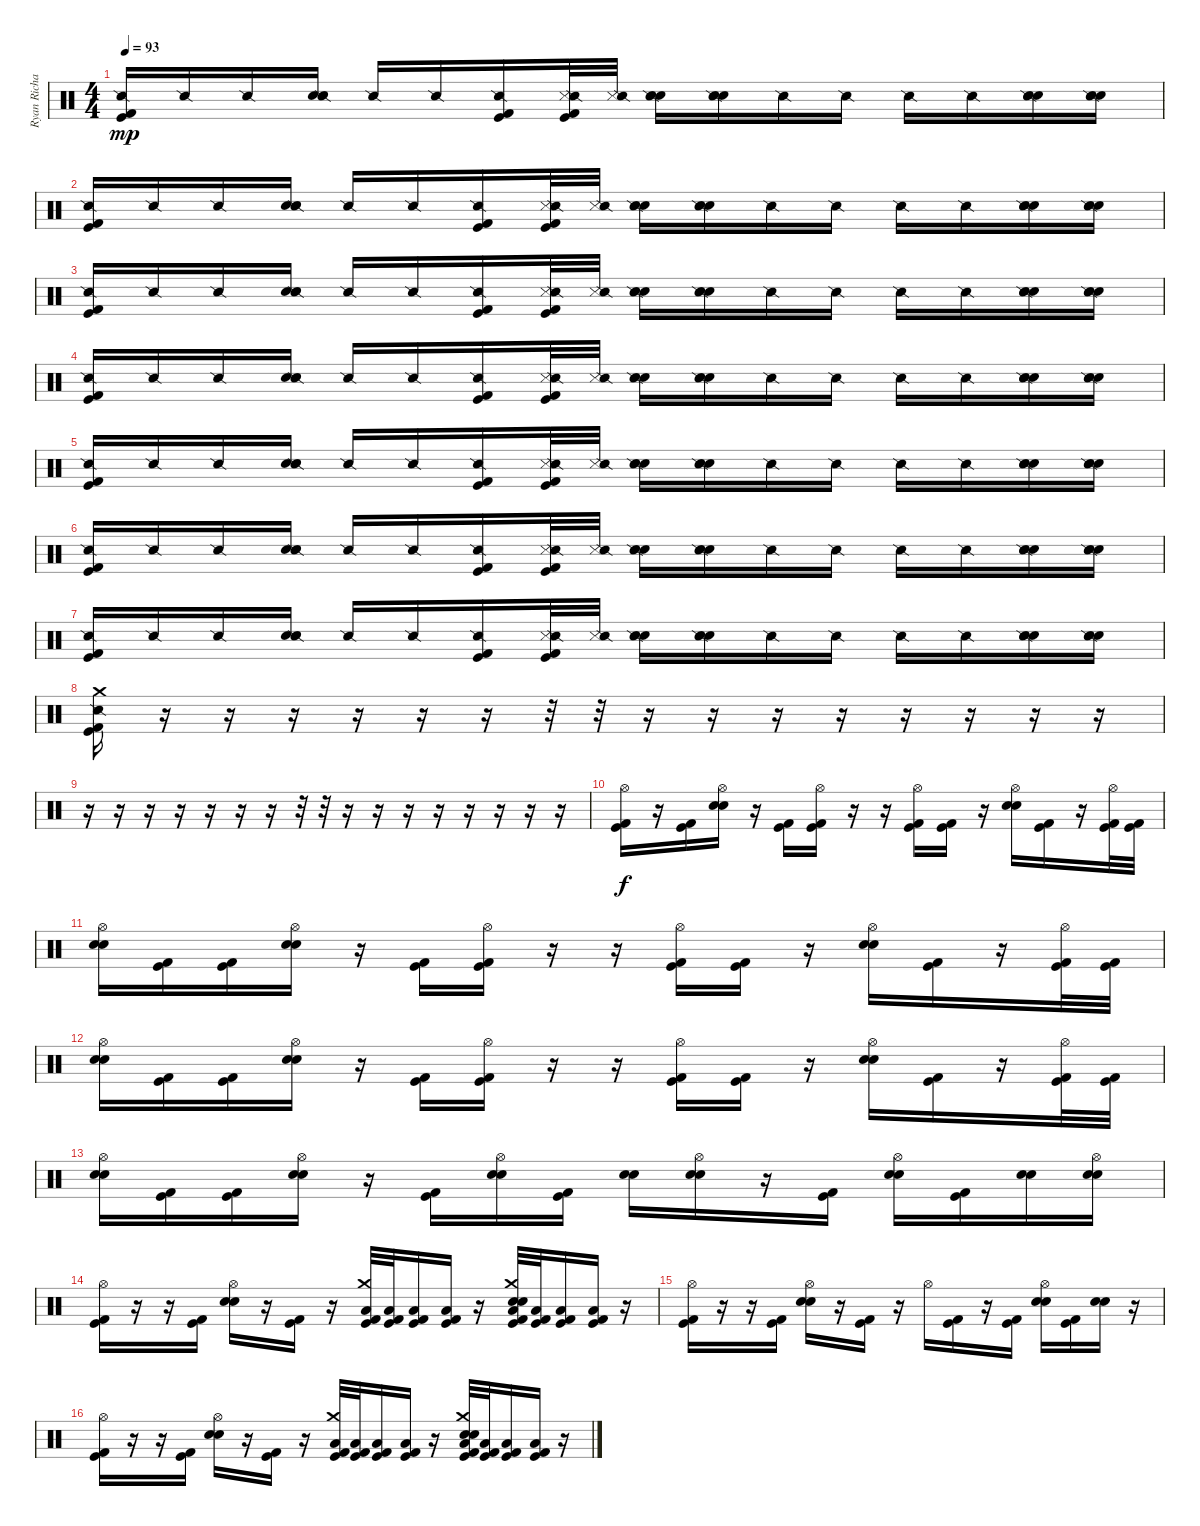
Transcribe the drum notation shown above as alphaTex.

\track ("Ryan Richards" "Ryan Richa") {instrument percussion}
\staff {score}
\articulation defaults
\ts (4 4)
\tempo 93
\clef neutral
\ks c
("Kick (hit)" "Snare (side stick) 2" "Kick (hit) 2").16{dy mp} "Snare (side stick) 2".16 "Snare (side stick) 2".16 ("Snare (hit) 2" "Snare (side stick) 2" "Electric Snare (hit)").16 "Snare (side stick) 2".16 "Snare (side stick) 2".16 ("Kick (hit)" "Snare (side stick) 2" "Kick (hit) 2").16 ("Kick (hit)" "Snare (side stick) 3" "Snare (side stick) 2" "Kick (hit) 2").32 ("Snare (side stick) 3" "Snare (side stick) 2").32 ("Snare (hit) 2" "Snare (side stick) 2" "Electric Snare (hit)").16 ("Snare (hit) 2" "Snare (side stick) 2" "Electric Snare (hit)").16 "Snare (side stick) 2".16 "Snare (side stick) 2".16 "Snare (side stick) 2".16 "Snare (side stick) 2".16 ("Snare (hit) 2" "Snare (side stick) 2" "Electric Snare (hit)").16 ("Snare (hit) 2" "Snare (side stick) 2" "Electric Snare (hit)").16 |
("Kick (hit)" "Snare (side stick) 2" "Kick (hit) 2").16 "Snare (side stick) 2".16 "Snare (side stick) 2".16 ("Snare (hit) 2" "Snare (side stick) 2" "Electric Snare (hit)").16 "Snare (side stick) 2".16 "Snare (side stick) 2".16 ("Kick (hit)" "Snare (side stick) 2" "Kick (hit) 2").16 ("Kick (hit)" "Snare (side stick) 3" "Snare (side stick) 2" "Kick (hit) 2").32 ("Snare (side stick) 3" "Snare (side stick) 2").32 ("Snare (hit) 2" "Snare (side stick) 2" "Electric Snare (hit)").16 ("Snare (hit) 2" "Snare (side stick) 2" "Electric Snare (hit)").16 "Snare (side stick) 2".16 "Snare (side stick) 2".16 "Snare (side stick) 2".16 "Snare (side stick) 2".16 ("Snare (hit) 2" "Snare (side stick) 2" "Electric Snare (hit)").16 ("Snare (hit) 2" "Snare (side stick) 2" "Electric Snare (hit)").16 |
("Kick (hit)" "Snare (side stick) 2" "Kick (hit) 2").16 "Snare (side stick) 2".16 "Snare (side stick) 2".16 ("Snare (hit) 2" "Snare (side stick) 2" "Electric Snare (hit)").16 "Snare (side stick) 2".16 "Snare (side stick) 2".16 ("Kick (hit)" "Snare (side stick) 2" "Kick (hit) 2").16 ("Kick (hit)" "Snare (side stick) 3" "Snare (side stick) 2" "Kick (hit) 2").32 ("Snare (side stick) 3" "Snare (side stick) 2").32 ("Snare (hit) 2" "Snare (side stick) 2" "Electric Snare (hit)").16 ("Snare (hit) 2" "Snare (side stick) 2" "Electric Snare (hit)").16 "Snare (side stick) 2".16 "Snare (side stick) 2".16 "Snare (side stick) 2".16 "Snare (side stick) 2".16 ("Snare (hit) 2" "Snare (side stick) 2" "Electric Snare (hit)").16 ("Snare (hit) 2" "Snare (side stick) 2" "Electric Snare (hit)").16 |
("Kick (hit)" "Snare (side stick) 2" "Kick (hit) 2").16 "Snare (side stick) 2".16 "Snare (side stick) 2".16 ("Snare (hit) 2" "Snare (side stick) 2" "Electric Snare (hit)").16 "Snare (side stick) 2".16 "Snare (side stick) 2".16 ("Kick (hit)" "Snare (side stick) 2" "Kick (hit) 2").16 ("Kick (hit)" "Snare (side stick) 3" "Snare (side stick) 2" "Kick (hit) 2").32 ("Snare (side stick) 3" "Snare (side stick) 2").32 ("Snare (hit) 2" "Snare (side stick) 2" "Electric Snare (hit)").16 ("Snare (hit) 2" "Snare (side stick) 2" "Electric Snare (hit)").16 "Snare (side stick) 2".16 "Snare (side stick) 2".16 "Snare (side stick) 2".16 "Snare (side stick) 2".16 ("Snare (hit) 2" "Snare (side stick) 2" "Electric Snare (hit)").16 ("Snare (hit) 2" "Snare (side stick) 2" "Electric Snare (hit)").16 |
("Kick (hit)" "Snare (side stick) 2" "Kick (hit) 2").16 "Snare (side stick) 2".16 "Snare (side stick) 2".16 ("Snare (hit) 2" "Snare (side stick) 2" "Electric Snare (hit)").16 "Snare (side stick) 2".16 "Snare (side stick) 2".16 ("Kick (hit)" "Snare (side stick) 2" "Kick (hit) 2").16 ("Kick (hit)" "Snare (side stick) 3" "Snare (side stick) 2" "Kick (hit) 2").32 ("Snare (side stick) 3" "Snare (side stick) 2").32 ("Snare (hit) 2" "Snare (side stick) 2" "Electric Snare (hit)").16 ("Snare (hit) 2" "Snare (side stick) 2" "Electric Snare (hit)").16 "Snare (side stick) 2".16 "Snare (side stick) 2".16 "Snare (side stick) 2".16 "Snare (side stick) 2".16 ("Snare (hit) 2" "Snare (side stick) 2" "Electric Snare (hit)").16 ("Snare (hit) 2" "Snare (side stick) 2" "Electric Snare (hit)").16 |
("Kick (hit)" "Snare (side stick) 2" "Kick (hit) 2").16 "Snare (side stick) 2".16 "Snare (side stick) 2".16 ("Snare (hit) 2" "Snare (side stick) 2" "Electric Snare (hit)").16 "Snare (side stick) 2".16 "Snare (side stick) 2".16 ("Kick (hit)" "Snare (side stick) 2" "Kick (hit) 2").16 ("Kick (hit)" "Snare (side stick) 3" "Snare (side stick) 2" "Kick (hit) 2").32 ("Snare (side stick) 3" "Snare (side stick) 2").32 ("Snare (hit) 2" "Snare (side stick) 2" "Electric Snare (hit)").16 ("Snare (hit) 2" "Snare (side stick) 2" "Electric Snare (hit)").16 "Snare (side stick) 2".16 "Snare (side stick) 2".16 "Snare (side stick) 2".16 "Snare (side stick) 2".16 ("Snare (hit) 2" "Snare (side stick) 2" "Electric Snare (hit)").16 ("Snare (hit) 2" "Snare (side stick) 2" "Electric Snare (hit)").16 |
("Kick (hit)" "Snare (side stick) 2" "Kick (hit) 2").16 "Snare (side stick) 2".16 "Snare (side stick) 2".16 ("Snare (hit) 2" "Snare (side stick) 2" "Electric Snare (hit)").16 "Snare (side stick) 2".16 "Snare (side stick) 2".16 ("Kick (hit)" "Snare (side stick) 2" "Kick (hit) 2").16 ("Kick (hit)" "Snare (side stick) 3" "Snare (side stick) 2" "Kick (hit) 2").32 ("Snare (side stick) 3" "Snare (side stick) 2").32 ("Snare (hit) 2" "Snare (side stick) 2" "Electric Snare (hit)").16 ("Snare (hit) 2" "Snare (side stick) 2" "Electric Snare (hit)").16 "Snare (side stick) 2".16 "Snare (side stick) 2".16 "Snare (side stick) 2".16 "Snare (side stick) 2".16 ("Snare (hit) 2" "Snare (side stick) 2" "Electric Snare (hit)").16 ("Snare (hit) 2" "Snare (side stick) 2" "Electric Snare (hit)").16 |
("Kick (hit)" "Crash medium (hit)" "Snare (side stick) 2" "Kick (hit) 2").16 r.16 r.16 r.16 r.16 r.16 r.16 r.32 r.32 r.16 r.16 r.16 r.16 r.16 r.16 r.16 r.16 |
r.16 r.16 r.16 r.16 r.16 r.16 r.16 r.32 r.32 r.16 r.16 r.16 r.16 r.16 r.16 r.16 r.16 |
("Kick (hit)" "Hi-Hat (open)" "Kick (hit) 2").16{dy f} r.16 ("Kick (hit)" "Kick (hit) 2").16 ("Snare (hit) 2" "Hi-Hat (open)" "Electric Snare (hit)").16 r.16 ("Kick (hit)" "Kick (hit) 2").16 ("Kick (hit)" "Hi-Hat (open)" "Kick (hit) 2").16 r.16 r.16 ("Kick (hit)" "Hi-Hat (open)" "Kick (hit) 2").16 ("Kick (hit)" "Kick (hit) 2").16 r.16 ("Snare (hit) 2" "Hi-Hat (open)" "Electric Snare (hit)").16 ("Kick (hit)" "Kick (hit) 2").16 r.16 ("Kick (hit)" "Hi-Hat (open)" "Kick (hit) 2").32 ("Kick (hit)" "Kick (hit) 2").32 |
("Snare (hit) 2" "Hi-Hat (open)" "Electric Snare (hit)").16 ("Kick (hit)" "Kick (hit) 2").16 ("Kick (hit)" "Kick (hit) 2").16 ("Snare (hit) 2" "Hi-Hat (open)" "Electric Snare (hit)").16 r.16 ("Kick (hit)" "Kick (hit) 2").16 ("Kick (hit)" "Hi-Hat (open)" "Kick (hit) 2").16 r.16 r.16 ("Kick (hit)" "Hi-Hat (open)" "Kick (hit) 2").16 ("Kick (hit)" "Kick (hit) 2").16 r.16 ("Snare (hit) 2" "Hi-Hat (open)" "Electric Snare (hit)").16 ("Kick (hit)" "Kick (hit) 2").16 r.16 ("Kick (hit)" "Hi-Hat (open)" "Kick (hit) 2").32 ("Kick (hit)" "Kick (hit) 2").32 |
("Snare (hit) 2" "Hi-Hat (open)" "Electric Snare (hit)").16 ("Kick (hit)" "Kick (hit) 2").16 ("Kick (hit)" "Kick (hit) 2").16 ("Snare (hit) 2" "Hi-Hat (open)" "Electric Snare (hit)").16 r.16 ("Kick (hit)" "Kick (hit) 2").16 ("Kick (hit)" "Hi-Hat (open)" "Kick (hit) 2").16 r.16 r.16 ("Kick (hit)" "Hi-Hat (open)" "Kick (hit) 2").16 ("Kick (hit)" "Kick (hit) 2").16 r.16 ("Snare (hit) 2" "Hi-Hat (open)" "Electric Snare (hit)").16 ("Kick (hit)" "Kick (hit) 2").16 r.16 ("Kick (hit)" "Hi-Hat (open)" "Kick (hit) 2").32 ("Kick (hit)" "Kick (hit) 2").32 |
("Snare (hit) 2" "Hi-Hat (open)" "Electric Snare (hit)").16 ("Kick (hit)" "Kick (hit) 2").16 ("Kick (hit)" "Kick (hit) 2").16 ("Snare (hit) 2" "Hi-Hat (open)" "Electric Snare (hit)").16 r.16 ("Kick (hit)" "Kick (hit) 2").16 ("Snare (hit) 2" "Hi-Hat (open)" "Electric Snare (hit)").16 ("Kick (hit)" "Kick (hit) 2").16 ("Snare (hit) 2" "Electric Snare (hit)").16 ("Snare (hit) 2" "Hi-Hat (open)" "Electric Snare (hit)").16 r.16 ("Kick (hit)" "Kick (hit) 2").16 ("Snare (hit) 2" "Hi-Hat (open)" "Electric Snare (hit)").16 ("Kick (hit)" "Kick (hit) 2").16 ("Snare (hit) 2" "Electric Snare (hit)").16 ("Snare (hit) 2" "Hi-Hat (open)" "Electric Snare (hit)").16 |
("Kick (hit)" "Hi-Hat (open)" "Kick (hit) 2").16 r.16 r.16 ("Kick (hit)" "Kick (hit) 2").16 ("Snare (hit) 2" "Hi-Hat (open)" "Electric Snare (hit)").16 r.16 ("Kick (hit)" "Kick (hit) 2").16 r.16 ("Kick (hit)" "Crash medium (hit)" "Low Floor Tom (hit)" "Kick (hit) 2").32 ("Kick (hit)" "Low Floor Tom (hit)" "Kick (hit) 2").32 ("Kick (hit)" "Low Floor Tom (hit)" "Kick (hit) 2").16 ("Kick (hit)" "Low Floor Tom (hit)" "Kick (hit) 2").16 r.16 ("Kick (hit)" "Snare (hit) 2" "Crash medium (hit)" "Low Floor Tom (hit)" "Electric Snare (hit)" "Kick (hit) 2").32 ("Kick (hit)" "Low Floor Tom (hit)" "Kick (hit) 2").32 ("Kick (hit)" "Low Floor Tom (hit)" "Kick (hit) 2").16 ("Kick (hit)" "Low Floor Tom (hit)" "Kick (hit) 2").16 r.16 |
("Kick (hit)" "Hi-Hat (open)" "Kick (hit) 2").16 r.16 r.16 ("Kick (hit)" "Kick (hit) 2").16 ("Snare (hit) 2" "Hi-Hat (open)" "Electric Snare (hit)").16 r.16 ("Kick (hit)" "Kick (hit) 2").16 r.16 "Hi-Hat (open)".16 ("Kick (hit)" "Kick (hit) 2").16 r.16 ("Kick (hit)" "Kick (hit) 2").16 ("Snare (hit) 2" "Hi-Hat (open)" "Electric Snare (hit)").16 ("Kick (hit)" "Kick (hit) 2").16 ("Snare (hit) 2" "Electric Snare (hit)").16 r.16 |
("Kick (hit)" "Hi-Hat (open)" "Kick (hit) 2").16 r.16 r.16 ("Kick (hit)" "Kick (hit) 2").16 ("Snare (hit) 2" "Hi-Hat (open)" "Electric Snare (hit)").16 r.16 ("Kick (hit)" "Kick (hit) 2").16 r.16 ("Kick (hit)" "Crash medium (hit)" "Low Floor Tom (hit)" "Kick (hit) 2").32 ("Kick (hit)" "Low Floor Tom (hit)" "Kick (hit) 2").32 ("Kick (hit)" "Low Floor Tom (hit)" "Kick (hit) 2").16 ("Kick (hit)" "Low Floor Tom (hit)" "Kick (hit) 2").16 r.16 ("Kick (hit)" "Snare (hit) 2" "Crash medium (hit)" "Low Floor Tom (hit)" "Electric Snare (hit)" "Kick (hit) 2").32 ("Kick (hit)" "Low Floor Tom (hit)" "Kick (hit) 2").32 ("Kick (hit)" "Low Floor Tom (hit)" "Kick (hit) 2").16 ("Kick (hit)" "Low Floor Tom (hit)" "Kick (hit) 2").16 r.16
